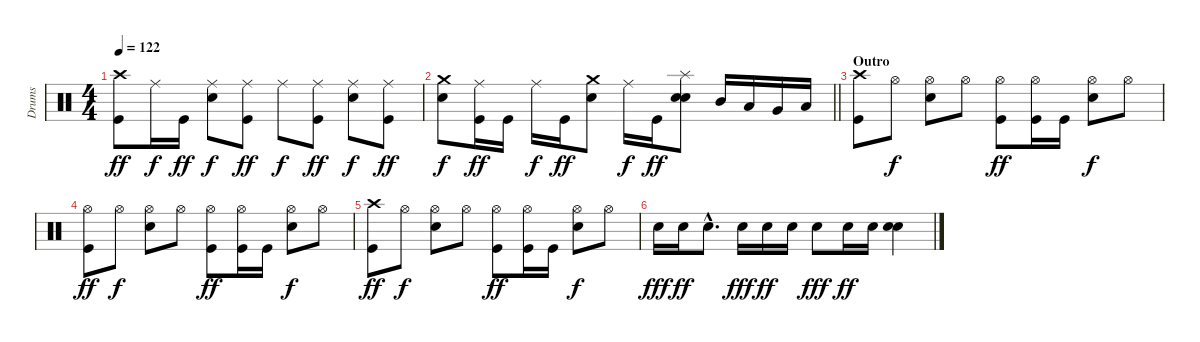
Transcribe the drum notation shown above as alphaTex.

\track ("Drums" "Drums") {instrument percussion}
\staff {score}
\articulation defaults
\ts (4 4)
\tempo 122
\clef neutral
\ks c
("Crash high (hit)" "Kick (hit)").8{dy ff} "Ride (middle)".16{dy f} "Kick (hit)".16{dy ff} ("Ride (middle)" "Snare (hit) 2").8{dy f} ("Ride (middle)" "Kick (hit)").8{dy ff} "Ride (middle)".8{dy f} ("Ride (middle)" "Kick (hit)").8{dy ff} ("Ride (middle)" "Snare (hit) 2").8{dy f} ("Ride (middle)" "Kick (hit)").8{dy ff} |
\barLineRight lightlight
("Crash medium (hit)" "Snare (hit) 2").8{dy f} ("Ride (middle)" "Kick (hit)").16{dy ff} "Kick (hit)".16 "Ride (middle)".16{dy f} "Kick (hit)".16{dy ff} ("Crash medium (hit)" "Snare (hit) 2").8 "Ride (middle)".16{dy f} "Kick (hit)".16{dy ff} ("Splash (hit)" "Snare (hit) 2" "Snare (hit) 2").8 "Mid Tom (hit)".16 "Low Tom (hit)".16 "Very Low Tom (hit)".16 "Low Tom (hit)".16 |
\section ("" "Outro")
("Crash high (hit)" "Kick (hit)").8 "Hi-Hat (open)".8{dy f} ("Hi-Hat (open)" "Snare (hit) 2").8 "Hi-Hat (open)".8 ("Hi-Hat (open)" "Kick (hit)").8{dy ff} ("Hi-Hat (open)" "Kick (hit)").16 "Kick (hit)".16 ("Hi-Hat (open)" "Snare (hit) 2").8{dy f} "Hi-Hat (open)".8 |
("Hi-Hat (open)" "Kick (hit)").8{dy ff} "Hi-Hat (open)".8{dy f} ("Hi-Hat (open)" "Snare (hit) 2").8 "Hi-Hat (open)".8 ("Hi-Hat (open)" "Kick (hit)").8{dy ff} ("Hi-Hat (open)" "Kick (hit)").16 "Kick (hit)".16 ("Hi-Hat (open)" "Snare (hit) 2").8{dy f} "Hi-Hat (open)".8 |
("Crash high (hit)" "Kick (hit)").8{dy ff} "Hi-Hat (open)".8{dy f} ("Hi-Hat (open)" "Snare (hit) 2").8 "Hi-Hat (open)".8 ("Hi-Hat (open)" "Kick (hit)").8{dy ff} ("Hi-Hat (open)" "Kick (hit)").16 "Kick (hit)".16 ("Hi-Hat (open)" "Snare (hit) 2").8{dy f} "Hi-Hat (open)".8 |
"Snare (hit) 2".16{dy fff} "Snare (hit) 2".16{dy ff} "Snare (hit) 2"{hac}.8{d} "Snare (hit) 2".16{dy fff} "Snare (hit) 2".16{dy ff} "Snare (hit) 2".16 "Snare (hit) 2".8{dy fff} "Snare (hit) 2".16{dy ff} "Snare (hit) 2".16 ("Snare (hit) 2" "Snare (hit) 2").4
